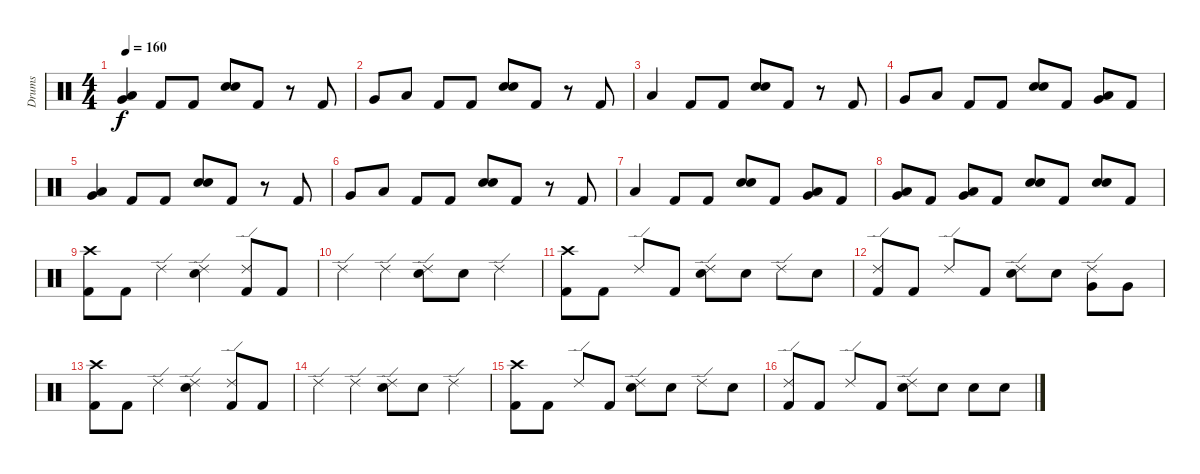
\track ("Drums" "Drums") {instrument percussion}
\staff {score}
\articulation defaults
\ts (4 4)
\tempo 160
\clef neutral
\ks c
("Very Low Tom (hit)" "Low Floor Tom (hit)").4{bd 120 dy f} "Kick (hit) 2".8 "Kick (hit) 2".8 ("Electric Snare (hit)" "Electric Snare (hit)").8{bd 120} "Kick (hit) 2".8 r.8 "Kick (hit) 2".8 |
"Very Low Tom (hit)".8 "Low Floor Tom (hit)".8 "Kick (hit) 2".8 "Kick (hit) 2".8 ("Electric Snare (hit)" "Electric Snare (hit)").8{bd 120} "Kick (hit) 2".8 r.8 "Kick (hit) 2".8 |
"Low Floor Tom (hit)".4 "Kick (hit) 2".8 "Kick (hit) 2".8 ("Electric Snare (hit)" "Electric Snare (hit)").8{bd 120} "Kick (hit) 2".8 r.8 "Kick (hit) 2".8 |
"Very Low Tom (hit)".8 "Low Floor Tom (hit)".8 "Kick (hit) 2".8 "Kick (hit) 2".8 ("Electric Snare (hit)" "Electric Snare (hit)").8{bd 120} "Kick (hit) 2".8 ("Low Floor Tom (hit)" "Very Low Tom (hit)").8{bd 120} "Kick (hit) 2".8 |
("Very Low Tom (hit)" "Low Floor Tom (hit)").4{bd 120} "Kick (hit) 2".8 "Kick (hit) 2".8 ("Electric Snare (hit)" "Electric Snare (hit)").8{bd 120} "Kick (hit) 2".8 r.8 "Kick (hit) 2".8 |
"Very Low Tom (hit)".8 "Low Floor Tom (hit)".8 "Kick (hit) 2".8 "Kick (hit) 2".8 ("Electric Snare (hit)" "Electric Snare (hit)").8{bd 120} "Kick (hit) 2".8 r.8 "Kick (hit) 2".8 |
"Low Floor Tom (hit)".4 "Kick (hit) 2".8 "Kick (hit) 2".8 ("Electric Snare (hit)" "Electric Snare (hit)").8{bd 120} "Kick (hit) 2".8 ("Very Low Tom (hit)" "Low Floor Tom (hit)").8{bd 120} "Kick (hit) 2".8 |
("Low Tom (hit)" "Very Low Tom (hit)").8{bd 120} "Kick (hit) 2".8 ("Very Low Tom (hit)" "Low Floor Tom (hit)").8{bd 120} "Kick (hit) 2".8 ("Electric Snare (hit)" "Electric Snare (hit)").8{bd 120} "Kick (hit) 2".8 ("Electric Snare (hit)" "Electric Snare (hit)").8{bd 120} "Kick (hit) 2".8 |
("Crash high (hit)" "Kick (hit) 2").8 "Kick (hit) 2".8 "Ride (edge) 2".4 ("Ride (edge) 2" "Electric Snare (hit)").4 ("Ride (edge) 2" "Kick (hit) 2").8 "Kick (hit) 2".8 |
"Ride (edge) 2".4 "Ride (edge) 2".4 ("Ride (edge) 2" "Electric Snare (hit)").8 "Electric Snare (hit)".8 "Ride (edge) 2".4 |
("Crash high (hit)" "Kick (hit) 2").8 "Kick (hit) 2".8 "Ride (edge) 2".8 "Kick (hit) 2".8 ("Ride (edge) 2" "Electric Snare (hit)").8 "Electric Snare (hit)".8 "Ride (edge) 2".8 "Electric Snare (hit)".8 |
("Ride (edge) 2" "Kick (hit) 2").8 "Kick (hit) 2".8 "Ride (edge) 2".8 "Kick (hit) 2".8 ("Ride (edge) 2" "Electric Snare (hit)").8 "Electric Snare (hit)".8 ("Ride (edge) 2" "Very Low Tom (hit)").8 "Very Low Tom (hit)".8 |
("Crash high (hit)" "Kick (hit) 2").8 "Kick (hit) 2".8 "Ride (edge) 2".4 ("Ride (edge) 2" "Electric Snare (hit)").4 ("Ride (edge) 2" "Kick (hit) 2").8 "Kick (hit) 2".8 |
"Ride (edge) 2".4 "Ride (edge) 2".4 ("Ride (edge) 2" "Electric Snare (hit)").8 "Electric Snare (hit)".8 "Ride (edge) 2".4 |
("Crash high (hit)" "Kick (hit) 2").8 "Kick (hit) 2".8 "Ride (edge) 2".8 "Kick (hit) 2".8 ("Ride (edge) 2" "Electric Snare (hit)").8 "Electric Snare (hit)".8 "Ride (edge) 2".8 "Electric Snare (hit)".8 |
("Ride (edge) 2" "Kick (hit) 2").8 "Kick (hit) 2".8 "Ride (edge) 2".8 "Kick (hit) 2".8 ("Ride (edge) 2" "Electric Snare (hit)").8 "Electric Snare (hit)".8 "Electric Snare (hit)".8 "Electric Snare (hit)".8
